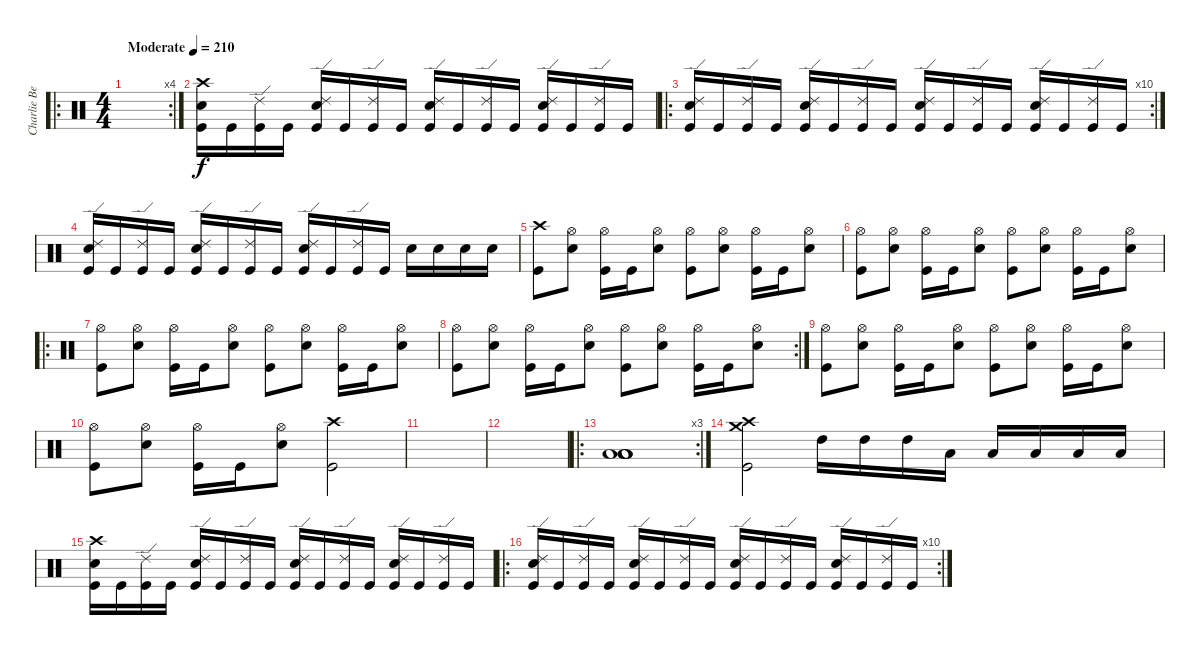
\track ("Charlie Benante" "Charlie Be") {instrument percussion}
\staff {score}
\articulation defaults
\ro
\rc 4
\ts (4 4)
\tempo (210 "Moderate")
\clef neutral
\ks c
|
("Crash high (hit)" "Snare (hit) 2" "Kick (hit)").16 "Kick (hit)".16 ("Ride (edge) 2" "Kick (hit)").16 "Kick (hit)".16 ("Ride (edge) 2" "Snare (hit) 2" "Kick (hit)").16 "Kick (hit)".16 ("Ride (edge) 2" "Kick (hit)").16 "Kick (hit)".16 ("Ride (edge) 2" "Snare (hit) 2" "Kick (hit)").16 "Kick (hit)".16 ("Ride (edge) 2" "Kick (hit)").16 "Kick (hit)".16 ("Ride (edge) 2" "Snare (hit) 2" "Kick (hit)").16 "Kick (hit)".16 ("Ride (edge) 2" "Kick (hit)").16 "Kick (hit)".16 |
\ro
\rc 10
("Ride (edge) 2" "Snare (hit) 2" "Kick (hit)").16 "Kick (hit)".16 ("Ride (edge) 2" "Kick (hit)").16 "Kick (hit)".16 ("Ride (edge) 2" "Snare (hit) 2" "Kick (hit)").16 "Kick (hit)".16 ("Ride (edge) 2" "Kick (hit)").16 "Kick (hit)".16 ("Ride (edge) 2" "Snare (hit) 2" "Kick (hit)").16 "Kick (hit)".16 ("Ride (edge) 2" "Kick (hit)").16 "Kick (hit)".16 ("Ride (edge) 2" "Snare (hit) 2" "Kick (hit)").16 "Kick (hit)".16 ("Ride (edge) 2" "Kick (hit)").16 "Kick (hit)".16 |
("Ride (edge) 2" "Snare (hit) 2" "Kick (hit)").16 "Kick (hit)".16 ("Ride (edge) 2" "Kick (hit)").16 "Kick (hit)".16 ("Ride (edge) 2" "Snare (hit) 2" "Kick (hit)").16 "Kick (hit)".16 ("Ride (edge) 2" "Kick (hit)").16 "Kick (hit)".16 ("Ride (edge) 2" "Snare (hit) 2" "Kick (hit)").16 "Kick (hit)".16 ("Ride (edge) 2" "Kick (hit)").16 "Kick (hit)".16 "Snare (hit) 2".16 "Snare (hit) 2".16 "Snare (hit) 2".16 "Snare (hit) 2".16 |
("Crash high (hit)" "Kick (hit)").8 ("Hi-Hat (open)" "Snare (hit) 2").8 ("Hi-Hat (open)" "Kick (hit)").16 "Kick (hit)".16 ("Hi-Hat (open)" "Snare (hit) 2").8 ("Hi-Hat (open)" "Kick (hit)").8 ("Hi-Hat (open)" "Snare (hit) 2").8 ("Hi-Hat (open)" "Kick (hit)").16 "Kick (hit)".16 ("Hi-Hat (open)" "Snare (hit) 2").8 |
("Hi-Hat (open)" "Kick (hit)").8 ("Hi-Hat (open)" "Snare (hit) 2").8 ("Hi-Hat (open)" "Kick (hit)").16 "Kick (hit)".16 ("Hi-Hat (open)" "Snare (hit) 2").8 ("Hi-Hat (open)" "Kick (hit)").8 ("Hi-Hat (open)" "Snare (hit) 2").8 ("Hi-Hat (open)" "Kick (hit)").16 "Kick (hit)".16 ("Hi-Hat (open)" "Snare (hit) 2").8 |
\ro
("Hi-Hat (open)" "Kick (hit)").8 ("Hi-Hat (open)" "Snare (hit) 2").8 ("Hi-Hat (open)" "Kick (hit)").16 "Kick (hit)".16 ("Hi-Hat (open)" "Snare (hit) 2").8 ("Hi-Hat (open)" "Kick (hit)").8 ("Hi-Hat (open)" "Snare (hit) 2").8 ("Hi-Hat (open)" "Kick (hit)").16 "Kick (hit)".16 ("Hi-Hat (open)" "Snare (hit) 2").8 |
\rc 2
("Hi-Hat (open)" "Kick (hit)").8 ("Hi-Hat (open)" "Snare (hit) 2").8 ("Hi-Hat (open)" "Kick (hit)").16 "Kick (hit)".16 ("Hi-Hat (open)" "Snare (hit) 2").8 ("Hi-Hat (open)" "Kick (hit)").8 ("Hi-Hat (open)" "Snare (hit) 2").8 ("Hi-Hat (open)" "Kick (hit)").16 "Kick (hit)".16 ("Hi-Hat (open)" "Snare (hit) 2").8 |
("Hi-Hat (open)" "Kick (hit)").8 ("Hi-Hat (open)" "Snare (hit) 2").8 ("Hi-Hat (open)" "Kick (hit)").16 "Kick (hit)".16 ("Hi-Hat (open)" "Snare (hit) 2").8 ("Hi-Hat (open)" "Kick (hit)").8 ("Hi-Hat (open)" "Snare (hit) 2").8 ("Hi-Hat (open)" "Kick (hit)").16 "Kick (hit)".16 ("Hi-Hat (open)" "Snare (hit) 2").8 |
("Hi-Hat (open)" "Kick (hit)").8 ("Hi-Hat (open)" "Snare (hit) 2").8 ("Hi-Hat (open)" "Kick (hit)").16 "Kick (hit)".16 ("Hi-Hat (open)" "Snare (hit) 2").8 ("Crash high (hit)" "Kick (hit)").2 |
|
|
\ro
\rc 3
("Low Floor Tom (hit)" "Low Tom (hit)" "Low Floor Tom (hit)" "Low Tom (hit)").1 |
("Crash high (hit)" "Crash medium (hit)" "Kick (hit)").2 "High Tom (hit)".16 "High Tom (hit)".16 "High Tom (hit)".16 "Low Tom (hit)".16 "Low Tom (hit)".16 "Low Tom (hit)".16 "Low Floor Tom (hit)".16 "Low Floor Tom (hit)".16 |
("Crash high (hit)" "Snare (hit) 2" "Kick (hit)").16 "Kick (hit)".16 ("Ride (edge) 2" "Kick (hit)").16 "Kick (hit)".16 ("Ride (edge) 2" "Snare (hit) 2" "Kick (hit)").16 "Kick (hit)".16 ("Ride (edge) 2" "Kick (hit)").16 "Kick (hit)".16 ("Ride (edge) 2" "Snare (hit) 2" "Kick (hit)").16 "Kick (hit)".16 ("Ride (edge) 2" "Kick (hit)").16 "Kick (hit)".16 ("Ride (edge) 2" "Snare (hit) 2" "Kick (hit)").16 "Kick (hit)".16 ("Ride (edge) 2" "Kick (hit)").16 "Kick (hit)".16 |
\ro
\rc 10
("Ride (edge) 2" "Snare (hit) 2" "Kick (hit)").16 "Kick (hit)".16 ("Ride (edge) 2" "Kick (hit)").16 "Kick (hit)".16 ("Ride (edge) 2" "Snare (hit) 2" "Kick (hit)").16 "Kick (hit)".16 ("Ride (edge) 2" "Kick (hit)").16 "Kick (hit)".16 ("Ride (edge) 2" "Snare (hit) 2" "Kick (hit)").16 "Kick (hit)".16 ("Ride (edge) 2" "Kick (hit)").16 "Kick (hit)".16 ("Ride (edge) 2" "Snare (hit) 2" "Kick (hit)").16 "Kick (hit)".16 ("Ride (edge) 2" "Kick (hit)").16 "Kick (hit)".16
